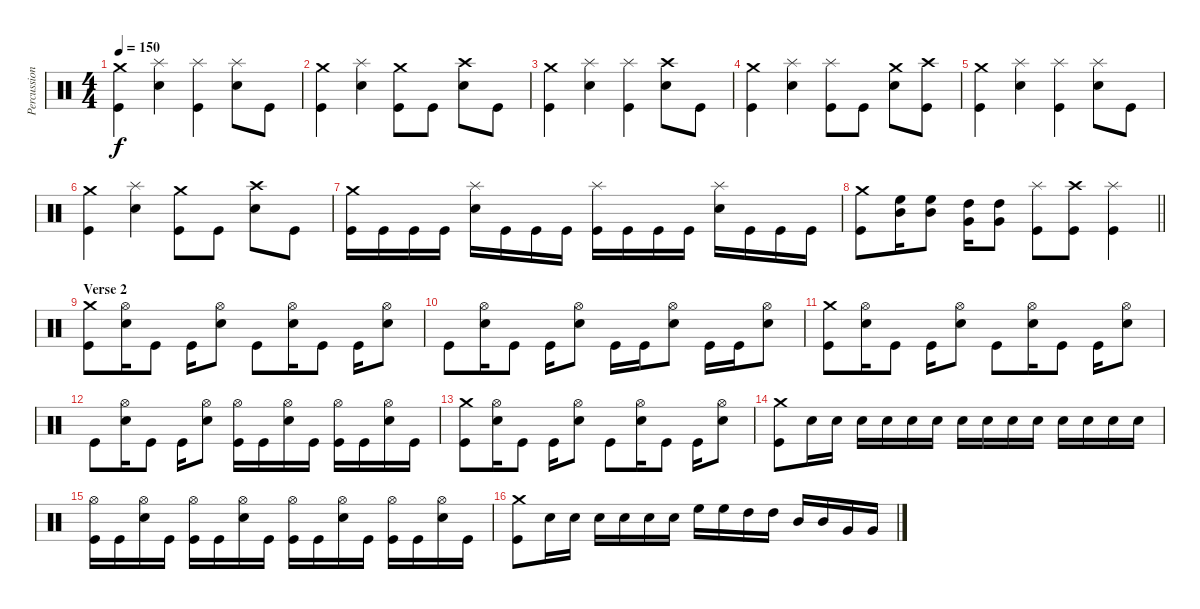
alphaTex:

\track ("Percussion" "Percussion") {instrument percussion}
\staff {score}
\articulation defaults
\ts (4 4)
\tempo 150
\clef neutral
\ks c
("Crash medium (hit)" "Kick (hit)").4{dy f} ("Splash (hit)" "Snare (hit) 2").4 ("Splash (hit)" "Kick (hit)").4 ("Splash (hit)" "Snare (hit) 2").8 "Kick (hit)".8 |
("Crash medium (hit)" "Kick (hit)").4 ("Splash (hit)" "Snare (hit) 2").4 ("Crash medium (hit)" "Kick (hit)").8 "Kick (hit)".8 ("Crash high (hit)" "Snare (hit) 2").8 "Kick (hit)".8 |
("Crash medium (hit)" "Kick (hit)").4 ("Splash (hit)" "Snare (hit) 2").4 ("Splash (hit)" "Kick (hit)").4 ("Crash high (hit)" "Snare (hit) 2").8 "Kick (hit)".8 |
("Crash medium (hit)" "Kick (hit)").4 ("Splash (hit)" "Snare (hit) 2").4 ("Splash (hit)" "Kick (hit)").8 "Kick (hit)".8 ("Crash medium (hit)" "Snare (hit) 2").8 ("Crash high (hit)" "Kick (hit)").8 |
("Crash medium (hit)" "Kick (hit)").4 ("Splash (hit)" "Snare (hit) 2").4 ("Splash (hit)" "Kick (hit)").4 ("Splash (hit)" "Snare (hit) 2").8 "Kick (hit)".8 |
("Crash medium (hit)" "Kick (hit)").4 ("Splash (hit)" "Snare (hit) 2").4 ("Crash medium (hit)" "Kick (hit)").8 "Kick (hit)".8 ("Crash high (hit)" "Snare (hit) 2").8 "Kick (hit)".8 |
("Crash medium (hit)" "Kick (hit)").16 "Kick (hit)".16 "Kick (hit)".16 "Kick (hit)".16 ("Splash (hit)" "Snare (hit) 2").16 "Kick (hit)".16 "Kick (hit)".16 "Kick (hit)".16 ("Splash (hit)" "Kick (hit)").16 "Kick (hit)".16 "Kick (hit)".16 "Kick (hit)".16 ("Splash (hit)" "Snare (hit) 2").16 "Kick (hit)".16 "Kick (hit)".16 "Kick (hit)".16 |
\barLineRight lightlight
("Crash medium (hit)" "Kick (hit)").8 ("High Floor Tom (hit)" "Mid Tom (hit)").16 ("High Floor Tom (hit)" "Mid Tom (hit)").8 ("High Tom (hit)" "Very Low Tom (hit)").16 ("High Tom (hit)" "Very Low Tom (hit)").8 ("Splash (hit)" "Kick (hit)").8 ("Crash high (hit)" "Kick (hit)").8 ("Splash (hit)" "Kick (hit)").4 |
\section ("" "Verse 2")
("Crash medium (hit)" "Kick (hit)").8 ("Hi-Hat (open)" "Snare (hit) 2").16 "Kick (hit)".8 "Kick (hit)".16 ("Hi-Hat (open)" "Snare (hit) 2").8 "Kick (hit)".8 ("Hi-Hat (open)" "Snare (hit) 2").16 "Kick (hit)".8 "Kick (hit)".16 ("Hi-Hat (open)" "Snare (hit) 2").8 |
"Kick (hit)".8 ("Hi-Hat (open)" "Snare (hit) 2").16 "Kick (hit)".8 "Kick (hit)".16 ("Hi-Hat (open)" "Snare (hit) 2").8 "Kick (hit)".16 "Kick (hit)".16 ("Hi-Hat (open)" "Snare (hit) 2").8 "Kick (hit)".16 "Kick (hit)".16 ("Hi-Hat (open)" "Snare (hit) 2").8 |
("Crash medium (hit)" "Kick (hit)").8 ("Hi-Hat (open)" "Snare (hit) 2").16 "Kick (hit)".8 "Kick (hit)".16 ("Hi-Hat (open)" "Snare (hit) 2").8 "Kick (hit)".8 ("Hi-Hat (open)" "Snare (hit) 2").16 "Kick (hit)".8 "Kick (hit)".16 ("Hi-Hat (open)" "Snare (hit) 2").8 |
"Kick (hit)".8 ("Hi-Hat (open)" "Snare (hit) 2").16 "Kick (hit)".8 "Kick (hit)".16 ("Hi-Hat (open)" "Snare (hit) 2").8 ("Hi-Hat (open)" "Kick (hit)").16 "Kick (hit)".16 ("Hi-Hat (open)" "Snare (hit) 2").16 "Kick (hit)".16 ("Hi-Hat (open)" "Kick (hit)").16 "Kick (hit)".16 ("Hi-Hat (open)" "Snare (hit) 2").16 "Kick (hit)".16 |
("Crash medium (hit)" "Kick (hit)").8 ("Hi-Hat (open)" "Snare (hit) 2").16 "Kick (hit)".8 "Kick (hit)".16 ("Hi-Hat (open)" "Snare (hit) 2").8 "Kick (hit)".8 ("Hi-Hat (open)" "Snare (hit) 2").16 "Kick (hit)".8 "Kick (hit)".16 ("Hi-Hat (open)" "Snare (hit) 2").8 |
("Crash medium (hit)" "Kick (hit)").8 "Snare (hit) 2".16 "Snare (hit) 2".16 "Snare (hit) 2".16 "Snare (hit) 2".16 "Snare (hit) 2".16 "Snare (hit) 2".16 "Snare (hit) 2".16 "Snare (hit) 2".16 "Snare (hit) 2".16 "Snare (hit) 2".16 "Snare (hit) 2".16 "Snare (hit) 2".16 "Snare (hit) 2".16 "Snare (hit) 2".16 |
("Hi-Hat (open)" "Kick (hit)").16 "Kick (hit)".16 ("Hi-Hat (open)" "Snare (hit) 2").16 "Kick (hit)".16 ("Hi-Hat (open)" "Kick (hit)").16 "Kick (hit)".16 ("Hi-Hat (open)" "Snare (hit) 2").16 "Kick (hit)".16 ("Hi-Hat (open)" "Kick (hit)").16 "Kick (hit)".16 ("Hi-Hat (open)" "Snare (hit) 2").16 "Kick (hit)".16 ("Hi-Hat (open)" "Kick (hit)").16 "Kick (hit)".16 ("Hi-Hat (open)" "Snare (hit) 2").16 "Kick (hit)".16 |
("Crash medium (hit)" "Kick (hit)").8 "Snare (hit) 2".16 "Snare (hit) 2".16 "Snare (hit) 2".16 "Snare (hit) 2".16 "Snare (hit) 2".16 "Snare (hit) 2".16 "High Floor Tom (hit)".16 "High Floor Tom (hit)".16 "High Tom (hit)".16 "High Tom (hit)".16 "Mid Tom (hit)".16 "Mid Tom (hit)".16 "Very Low Tom (hit)".16 "Very Low Tom (hit)".16
